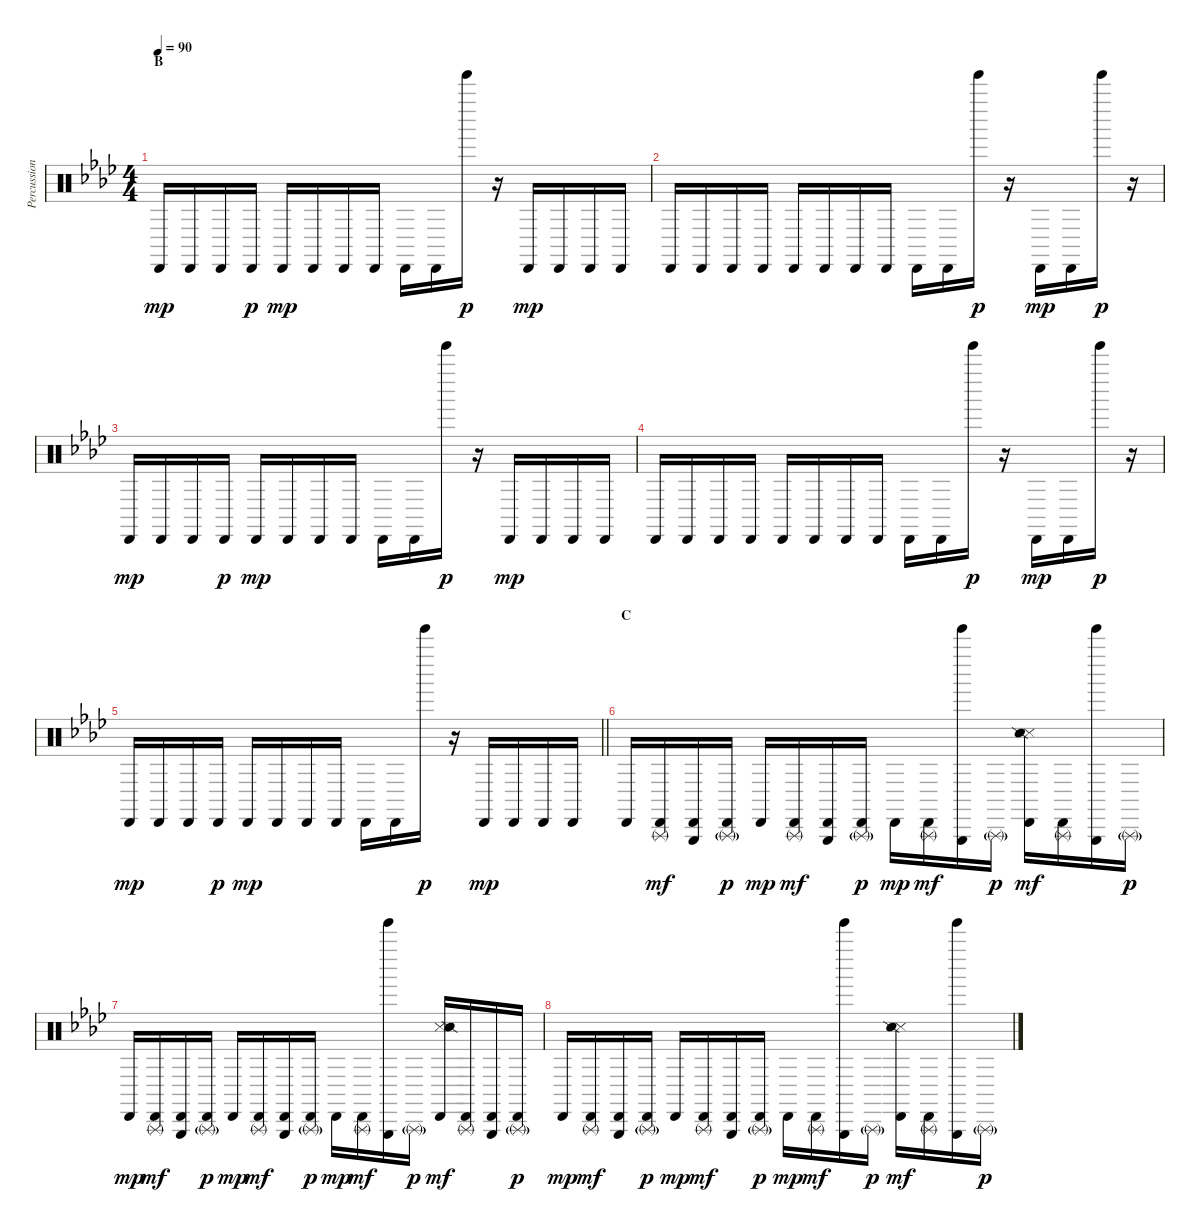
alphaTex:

\track ("Percussion" "Percussion") {instrument percussion}
\staff {score}
\articulation defaults
\ts (4 4)
\section ("" "B")
\tempo 90
\clef neutral
\ks ab "Cabasa (hit)".16{dy mp} "Cabasa (hit)".16 "Cabasa (hit)".16 "Cabasa (hit)".16{dy p} "Cabasa (hit)".16{dy mp} "Cabasa (hit)".16 "Cabasa (hit)".16 "Cabasa (hit)".16 "Cabasa (hit)".16 "Cabasa (hit)".16 "Tinkle Bell (hit)".16{dy p}
r.16 "Cabasa (hit)".16{dy mp} "Cabasa (hit)".16 "Cabasa (hit)".16 "Cabasa (hit)".16 |
"Cabasa (hit)".16 "Cabasa (hit)".16 "Cabasa (hit)".16 "Cabasa (hit)".16 "Cabasa (hit)".16 "Cabasa (hit)".16 "Cabasa (hit)".16 "Cabasa (hit)".16 "Cabasa (hit)".16 "Cabasa (hit)".16 "Tinkle Bell (hit)".16{dy p} r.16 "Cabasa (hit)".16{dy mp} "Cabasa (hit)".16 "Tinkle Bell (hit)".16{dy p} r.16 |
"Cabasa (hit)".16{dy mp} "Cabasa (hit)".16 "Cabasa (hit)".16 "Cabasa (hit)".16{dy p} "Cabasa (hit)".16{dy mp} "Cabasa (hit)".16 "Cabasa (hit)".16 "Cabasa (hit)".16 "Cabasa (hit)".16 "Cabasa (hit)".16 "Tinkle Bell (hit)".16{dy p} r.16 "Cabasa (hit)".16{dy mp} "Cabasa (hit)".16 "Cabasa (hit)".16 "Cabasa (hit)".16 |
"Cabasa (hit)".16 "Cabasa (hit)".16 "Cabasa (hit)".16 "Cabasa (hit)".16 "Cabasa (hit)".16 "Cabasa (hit)".16 "Cabasa (hit)".16 "Cabasa (hit)".16 "Cabasa (hit)".16 "Cabasa (hit)".16 "Tinkle Bell (hit)".16{dy p} r.16 "Cabasa (hit)".16{dy mp} "Cabasa (hit)".16 "Tinkle Bell (hit)".16{dy p} r.16 |
\barLineRight lightlight "Cabasa (hit)".16{dy mp} "Cabasa (hit)".16 "Cabasa (hit)".16 "Cabasa (hit)".16{dy p} "Cabasa (hit)".16{dy mp} "Cabasa (hit)".16 "Cabasa (hit)".16 "Cabasa (hit)".16 "Cabasa (hit)".16 "Cabasa (hit)".16 "Tinkle Bell (hit)".16{dy p}
r.16 "Cabasa (hit)".16{dy mp} "Cabasa (hit)".16 "Cabasa (hit)".16 "Cabasa (hit)".16 |
\section ("" "C")
"Cabasa (hit)".16 ("Cabasa (hit)" "Triangle (rnute)").16{dy mf} ("Cabasa (hit)" "Triangle (hit)").16 ("Cabasa (hit)" "Triangle (rnute)"{g}).16{dy p} "Cabasa (hit)".16{dy mp} ("Cabasa (hit)" "Triangle (rnute)").16{dy mf} ("Cabasa (hit)" "Triangle (hit)").16 ("Cabasa (hit)" "Triangle (rnute)"{g}).16{dy p} "Cabasa (hit)".16{dy mp} ("Cabasa (hit)" "Triangle (rnute)").16{dy mf} ("Tinkle Bell (hit)" "Triangle (hit)").16 "Triangle (rnute)"{g}.16{dy p} ("Cabasa (hit)" "Metronome (hit)" "Snare (side stick) 2").16{dy mf} ("Cabasa (hit)" "Triangle (rnute)").16 ("Tinkle Bell (hit)" "Triangle (hit)").16 "Triangle (rnute)"{g}.16{dy p} |
"Cabasa (hit)".16{dy mp} ("Cabasa (hit)" "Triangle (rnute)").16{dy mf} ("Cabasa (hit)" "Triangle (hit)").16 ("Cabasa (hit)" "Triangle (rnute)"{g}).16{dy p} "Cabasa (hit)".16{dy mp} ("Cabasa (hit)" "Triangle (rnute)").16{dy mf} ("Cabasa (hit)" "Triangle (hit)").16 ("Cabasa (hit)" "Triangle (rnute)"{g}).16{dy p} "Cabasa (hit)".16{dy mp} ("Cabasa (hit)" "Triangle (rnute)").16{dy mf} ("Tinkle Bell (hit)" "Triangle (hit)").16 "Triangle (rnute)"{g}.16{dy p} ("Cabasa (hit)" "Metronome (hit)" "Snare (side stick) 2").16{dy mf} ("Cabasa (hit)" "Triangle (rnute)").16 ("Cabasa (hit)" "Triangle (hit)").16 ("Cabasa (hit)" "Triangle (rnute)"{g}).16{dy p} |
"Cabasa (hit)".16{dy mp} ("Cabasa (hit)" "Triangle (rnute)").16{dy mf} ("Cabasa (hit)" "Triangle (hit)").16 ("Cabasa (hit)" "Triangle (rnute)"{g}).16{dy p} "Cabasa (hit)".16{dy mp} ("Cabasa (hit)" "Triangle (rnute)").16{dy mf} ("Cabasa (hit)" "Triangle (hit)").16 ("Cabasa (hit)" "Triangle (rnute)"{g}).16{dy p} "Cabasa (hit)".16{dy mp} ("Cabasa (hit)" "Triangle (rnute)").16{dy mf} ("Tinkle Bell (hit)" "Triangle (hit)").16 "Triangle (rnute)"{g}.16{dy p} ("Cabasa (hit)" "Metronome (hit)" "Snare (side stick) 2").16{dy mf} ("Cabasa (hit)" "Triangle (rnute)").16 ("Tinkle Bell (hit)" "Triangle (hit)").16 "Triangle (rnute)"{g}.16{dy p}
